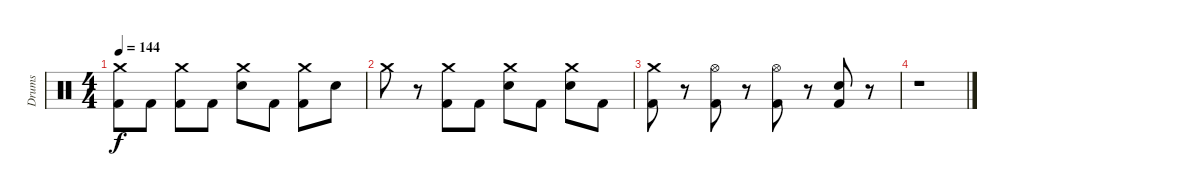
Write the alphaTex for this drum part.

\track ("Drums" "Drums") {instrument percussion}
\staff {score}
\articulation defaults
\ts (4 4)
\tempo 144
\clef neutral
\ks c
("Crash medium (hit)" "Kick (hit) 2").8{dy f} "Kick (hit) 2".8 ("Crash medium (hit)" "Kick (hit) 2").8 "Kick (hit) 2".8 ("Crash medium (hit)" "Electric Snare (hit)").8 "Kick (hit) 2".8 ("Crash medium (hit)" "Kick (hit) 2").8 "Electric Snare (hit)".8 |
"Crash medium (hit)".8 r.8 ("Crash medium (hit)" "Kick (hit) 2").8 "Kick (hit) 2".8 ("Crash medium (hit)" "Electric Snare (hit)").8 "Kick (hit) 2".8 ("Crash medium (hit)" "Electric Snare (hit)").8 "Kick (hit) 2".8 |
("Crash medium (hit)" "Kick (hit) 2").8 r.8 ("Hi-Hat (open)" "Kick (hit) 2").8 r.8 ("Hi-Hat (open)" "Kick (hit) 2").8 r.8 ("Electric Snare (hit)" "Kick (hit) 2").8 r.8 |
r.1
